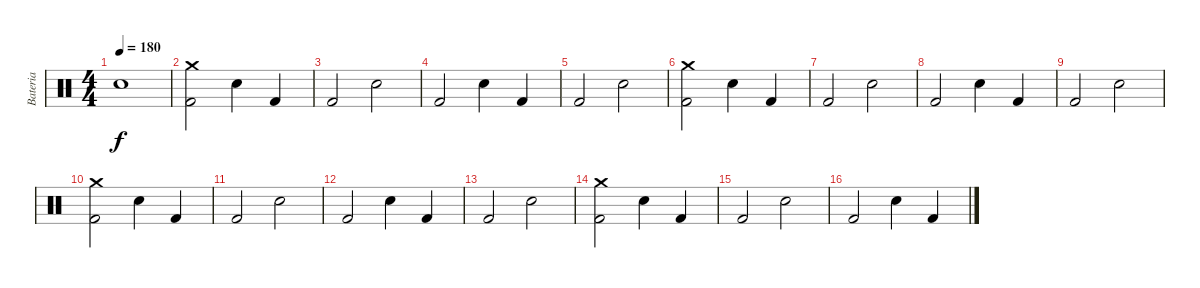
\track ("Bateria" "Bateria") {instrument percussion}
\staff {score}
\articulation defaults
\ts (4 4)
\tempo 180
\clef neutral
\ks c "Electric Snare (hit)".1{dy f}
|
("Crash medium (hit)" "Kick (hit) 2").2 "Electric Snare (hit)".4 "Kick (hit) 2".4 |
"Kick (hit) 2".2 "Electric Snare (hit)".2 |
"Kick (hit) 2".2 "Electric Snare (hit)".4 "Kick (hit) 2".4 |
"Kick (hit) 2".2 "Electric Snare (hit)".2 |
("Crash medium (hit)" "Kick (hit) 2").2 "Electric Snare (hit)".4 "Kick (hit) 2".4 |
"Kick (hit) 2".2 "Electric Snare (hit)".2 |
"Kick (hit) 2".2 "Electric Snare (hit)".4 "Kick (hit) 2".4 |
"Kick (hit) 2".2 "Electric Snare (hit)".2 |
("Crash medium (hit)" "Kick (hit) 2").2 "Electric Snare (hit)".4 "Kick (hit) 2".4 |
"Kick (hit) 2".2 "Electric Snare (hit)".2 |
"Kick (hit) 2".2 "Electric Snare (hit)".4 "Kick (hit) 2".4 |
"Kick (hit) 2".2 "Electric Snare (hit)".2 |
("Crash medium (hit)" "Kick (hit) 2").2 "Electric Snare (hit)".4 "Kick (hit) 2".4 |
"Kick (hit) 2".2 "Electric Snare (hit)".2 |
"Kick (hit) 2".2 "Electric Snare (hit)".4 "Kick (hit) 2".4
